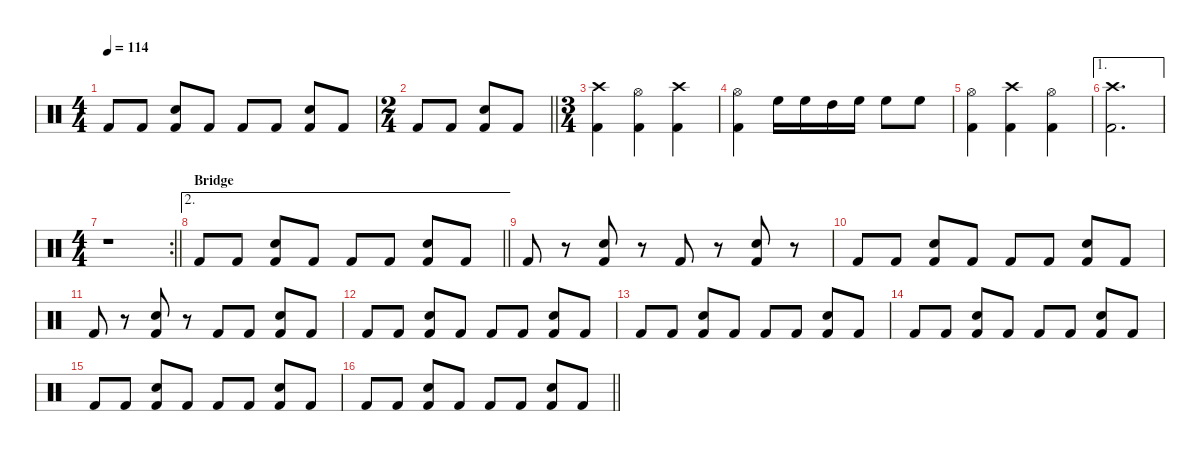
\defaultSystemsLayout 4
\hideDynamics
\bracketExtendMode nobrackets
\singleTrackTrackNamePolicy hidden
\multiTrackTrackNamePolicy hidden
\firstSystemTrackNameMode fullname
\firstSystemTrackNameOrientation horizontal
\otherSystemsTrackNameOrientation horizontal
\track ("Percussion" "drm.") {defaultSystemsLayout 4 instrument percussion}
\staff {score}
\articulation defaults
\ts (4 4)
\tempo 114
\clef neutral
\ks c "Kick (hit) 2".8{dy fff beam Up} "Kick (hit) 2".8{beam Up}
("Snare (hit) 2" "Kick (hit) 2").8{dy mf beam Up} "Kick (hit) 2".8{dy fff beam Up} "Kick (hit) 2".8{beam Up} "Kick (hit) 2".8{beam Up} ("Snare (hit) 2" "Kick (hit) 2").8{dy mf beam Up} "Kick (hit) 2".8{dy fff beam Up} |
\ts (2 4)
\beaming (8 2 2)
\barLineRight lightlight "Kick (hit) 2".8{beam Up} "Kick (hit) 2".8{beam Up}
("Snare (hit) 2" "Kick (hit) 2").8{dy mf beam Up} "Kick (hit) 2".8{dy fff beam Up} |
\ts (3 4)
\beaming (8 2 2 2)
("Crash high (hit)" "Kick (hit) 2").4{dy f beam Down} ("Hi-Hat (open)" "Kick (hit) 2").4{beam Down} ("Crash high (hit)" "Kick (hit) 2").4{beam Down} |
("Hi-Hat (open)" "Kick (hit) 2").4{beam Down} "High Floor Tom (hit)".16{dy mf beam Down} "High Floor Tom (hit)".16{beam Down} "High Tom (hit)".16{beam Down} "High Floor Tom (hit)".16{beam Down} "High Floor Tom (hit)".8{beam Down} "High Floor Tom (hit)".8{beam Down} |
("Hi-Hat (open)" "Kick (hit) 2").4{dy f beam Down} ("Crash high (hit)" "Kick (hit) 2").4{beam Down} ("Hi-Hat (open)" "Kick (hit) 2").4{beam Down} |
\ae 1
("Crash high (hit)" "Kick (hit) 2").2{d beam Down} |
\rc 2
\ts (4 4)
\beaming (8 2 2 2 2)
\barLineRight lightlight
r.1{beam Down} |
\ae 2
\section ("" "Bridge")
\barLineRight lightlight "Kick (hit) 2".8{dy fff beam Up} "Kick (hit) 2".8{beam Up}
("Snare (hit) 2" "Kick (hit) 2").8{dy mf beam Up} "Kick (hit) 2".8{dy fff beam Up} "Kick (hit) 2".8{beam Up} "Kick (hit) 2".8{beam Up} ("Snare (hit) 2" "Kick (hit) 2").8{dy mf beam Up} "Kick (hit) 2".8{dy fff beam Up} |
"Kick (hit) 2".8{beam Up} r.8{beam Up} ("Snare (hit) 2" "Kick (hit) 2").8{dy mf beam Up} r.8{beam Up} "Kick (hit) 2".8{dy fff beam Up} r.8{beam Up} ("Snare (hit) 2" "Kick (hit) 2").8{dy mf beam Up} r.8{beam Up} |
"Kick (hit) 2".8{dy fff beam Up} "Kick (hit) 2".8{dy mf beam Up} ("Snare (hit) 2" "Kick (hit) 2").8{beam Up} "Kick (hit) 2".8{beam Up} "Kick (hit) 2".8{dy fff beam Up} "Kick (hit) 2".8{dy mf beam Up} ("Snare (hit) 2" "Kick (hit) 2").8{beam Up} "Kick (hit) 2".8{beam Up} |
"Kick (hit) 2".8{dy fff beam Up} r.8{beam Up} ("Snare (hit) 2" "Kick (hit) 2").8{dy mf beam Up} r.8{beam Up} "Kick (hit) 2".8{dy fff beam Up} "Kick (hit) 2".8{beam Up} ("Snare (hit) 2" "Kick (hit) 2").8{dy mf beam Up} "Kick (hit) 2".8{dy fff beam Up} |
"Kick (hit) 2".8{beam Up} "Kick (hit) 2".8{dy mf beam Up} ("Snare (hit) 2" "Kick (hit) 2").8{beam Up} "Kick (hit) 2".8{dy fff beam Up} "Kick (hit) 2".8{beam Up} "Kick (hit) 2".8{beam Up} ("Snare (hit) 2" "Kick (hit) 2").8{dy mf beam Up} "Kick (hit) 2".8{dy fff beam Up} |
"Kick (hit) 2".8{beam Up} "Kick (hit) 2".8{beam Up} ("Snare (hit) 2" "Kick (hit) 2").8{dy mf beam Up} "Kick (hit) 2".8{dy fff beam Up} "Kick (hit) 2".8{beam Up} "Kick (hit) 2".8{beam Up} ("Snare (hit) 2" "Kick (hit) 2").8{dy mf beam Up} "Kick (hit) 2".8{dy fff beam Up} |
"Kick (hit) 2".8{beam Up} "Kick (hit) 2".8{beam Up} ("Snare (hit) 2" "Kick (hit) 2").8{dy mf beam Up} "Kick (hit) 2".8{dy fff beam Up} "Kick (hit) 2".8{beam Up} "Kick (hit) 2".8{beam Up} ("Snare (hit) 2" "Kick (hit) 2").8{dy mf beam Up} "Kick (hit) 2".8{dy fff beam Up} |
"Kick (hit) 2".8{beam Up} "Kick (hit) 2".8{beam Up} ("Snare (hit) 2" "Kick (hit) 2").8{dy mf beam Up} "Kick (hit) 2".8{dy fff beam Up} "Kick (hit) 2".8{beam Up} "Kick (hit) 2".8{beam Up} ("Snare (hit) 2" "Kick (hit) 2").8{dy mf beam Up} "Kick (hit) 2".8{dy fff beam Up} |
\barLineRight lightlight "Kick (hit) 2".8{beam Up} "Kick (hit) 2".8{beam Up}
("Snare (hit) 2" "Kick (hit) 2").8{dy mf beam Up} "Kick (hit) 2".8{dy fff beam Up} "Kick (hit) 2".8{beam Up} "Kick (hit) 2".8{beam Up} ("Snare (hit) 2" "Kick (hit) 2").8{dy mf beam Up} "Kick (hit) 2".8{dy fff beam Up}
